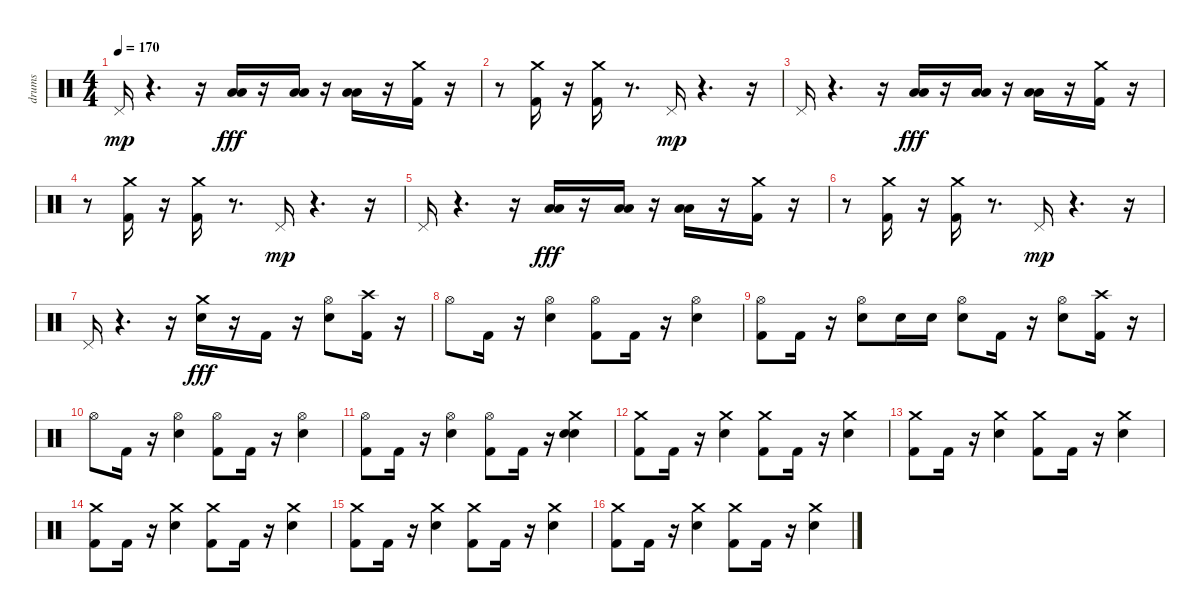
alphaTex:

\track ("drums" "drums") {instrument percussion}
\staff {score}
\articulation defaults
\ts (4 4)
\tempo 170
\clef neutral
\ks c "Pedal Hi-Hat (hit)".16{dy mp}
r.4{d} r.16 ("Low Tom (hit)" "Low Floor Tom (hit)").16{dy fff} r.16 ("Low Tom (hit)" "Low Floor Tom (hit)").16 r.16 ("Low Floor Tom (hit)" "Low Tom (hit)").16 r.16 ("Kick (hit) 2" "Crash medium (hit)").16 r.16 |
r.8 ("Crash medium (hit)" "Kick (hit) 2").16 r.16 ("Kick (hit) 2" "Crash medium (hit)").16 r.8{d} "Pedal Hi-Hat (hit)".16{dy mp} r.4{d} r.16 |
"Pedal Hi-Hat (hit)".16 r.4{d} r.16 ("Low Tom (hit)" "Low Floor Tom (hit)").16{dy fff} r.16 ("Low Tom (hit)" "Low Floor Tom (hit)").16 r.16 ("Low Floor Tom (hit)" "Low Tom (hit)").16 r.16 ("Kick (hit) 2" "Crash medium (hit)").16 r.16 |
r.8 ("Crash medium (hit)" "Kick (hit) 2").16 r.16 ("Kick (hit) 2" "Crash medium (hit)").16 r.8{d} "Pedal Hi-Hat (hit)".16{dy mp} r.4{d} r.16 |
"Pedal Hi-Hat (hit)".16 r.4{d} r.16 ("Low Tom (hit)" "Low Floor Tom (hit)").16{dy fff} r.16 ("Low Tom (hit)" "Low Floor Tom (hit)").16 r.16 ("Low Floor Tom (hit)" "Low Tom (hit)").16 r.16 ("Kick (hit) 2" "Crash medium (hit)").16 r.16 |
r.8 ("Crash medium (hit)" "Kick (hit) 2").16 r.16 ("Kick (hit) 2" "Crash medium (hit)").16 r.8{d} "Pedal Hi-Hat (hit)".16{dy mp} r.4{d} r.16 |
"Pedal Hi-Hat (hit)".16 r.4{d} r.16 ("Electric Snare (hit)" "Crash medium (hit)").16{dy fff} r.16 "Kick (hit) 2".16 r.16 ("Electric Snare (hit)" "Hi-Hat (open)").8 ("Kick (hit) 2" "Crash high (hit)").16 r.16 |
"Hi-Hat (open)".8 "Kick (hit) 2".16 r.16 ("Electric Snare (hit)" "Hi-Hat (open)").4 ("Kick (hit) 2" "Hi-Hat (open)").8 "Kick (hit) 2".16 r.16 ("Electric Snare (hit)" "Hi-Hat (open)").4 |
("Kick (hit) 2" "Hi-Hat (open)").8 "Kick (hit) 2".16 r.16 ("Electric Snare (hit)" "Hi-Hat (open)").8 "Electric Snare (hit)".16 "Electric Snare (hit)".16 ("Hi-Hat (open)" "Electric Snare (hit)").8 "Kick (hit) 2".16 r.16 ("Hi-Hat (open)" "Electric Snare (hit)").8 ("Kick (hit) 2" "Crash high (hit)").16 r.16 |
"Hi-Hat (open)".8 "Kick (hit) 2".16 r.16 ("Electric Snare (hit)" "Hi-Hat (open)").4 ("Kick (hit) 2" "Hi-Hat (open)").8 "Kick (hit) 2".16 r.16 ("Electric Snare (hit)" "Hi-Hat (open)").4 |
("Kick (hit) 2" "Hi-Hat (open)").8 "Kick (hit) 2".16 r.16 ("Electric Snare (hit)" "Hi-Hat (open)").4 ("Kick (hit) 2" "Hi-Hat (open)").8 "Kick (hit) 2".16 r.16 ("Electric Snare (hit)" "Crash medium (hit)" "Electric Snare (hit)").4 |
("Kick (hit) 2" "Crash medium (hit)").8 "Kick (hit) 2".16 r.16 ("Electric Snare (hit)" "Crash medium (hit)").4 ("Kick (hit) 2" "Crash medium (hit)").8 "Kick (hit) 2".16 r.16 ("Electric Snare (hit)" "Crash medium (hit)").4 |
("Kick (hit) 2" "Crash medium (hit)").8 "Kick (hit) 2".16 r.16 ("Electric Snare (hit)" "Crash medium (hit)").4 ("Kick (hit) 2" "Crash medium (hit)").8 "Kick (hit) 2".16 r.16 ("Electric Snare (hit)" "Crash medium (hit)").4 |
("Kick (hit) 2" "Crash medium (hit)").8 "Kick (hit) 2".16 r.16 ("Electric Snare (hit)" "Crash medium (hit)").4 ("Kick (hit) 2" "Crash medium (hit)").8 "Kick (hit) 2".16 r.16 ("Electric Snare (hit)" "Crash medium (hit)").4 |
("Kick (hit) 2" "Crash medium (hit)").8 "Kick (hit) 2".16 r.16 ("Electric Snare (hit)" "Crash medium (hit)").4 ("Kick (hit) 2" "Crash medium (hit)").8 "Kick (hit) 2".16 r.16 ("Electric Snare (hit)" "Crash medium (hit)").4 |
("Kick (hit) 2" "Crash medium (hit)").8 "Kick (hit) 2".16 r.16 ("Electric Snare (hit)" "Crash medium (hit)").4 ("Kick (hit) 2" "Crash medium (hit)").8 "Kick (hit) 2".16 r.16 ("Electric Snare (hit)" "Crash medium (hit)").4
